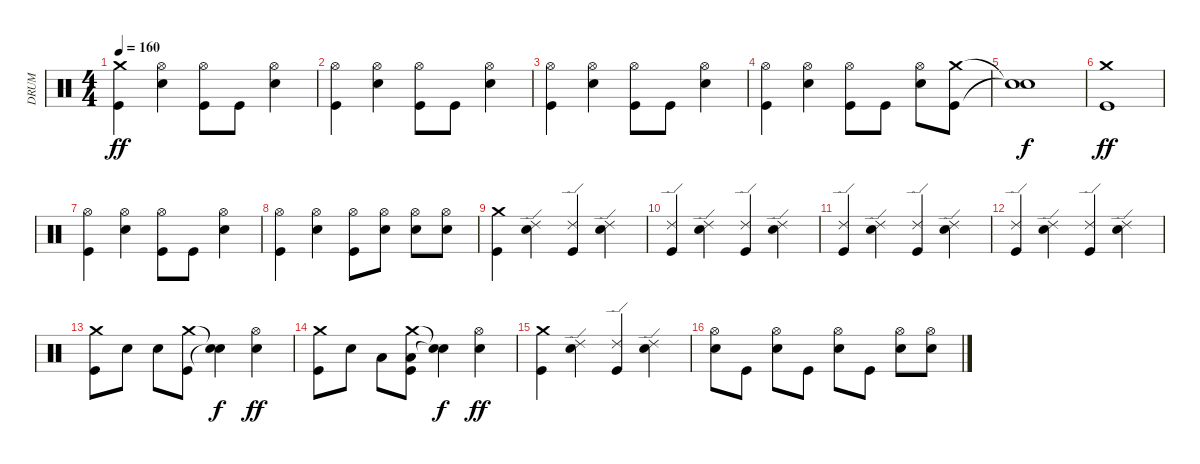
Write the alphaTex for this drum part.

\track ("DRUM" "DRUM") {instrument percussion}
\staff {score}
\articulation defaults
\ts (4 4)
\tempo 160
\clef neutral
\ks c
("Crash medium (hit)" "Kick (hit)").4{dy ff} ("Hi-Hat (open)" "Snare (hit) 2").4 ("Hi-Hat (open)" "Kick (hit)").8 "Kick (hit)".8 ("Hi-Hat (open)" "Snare (hit) 2").4 |
("Hi-Hat (open)" "Kick (hit)").4 ("Hi-Hat (open)" "Snare (hit) 2").4 ("Hi-Hat (open)" "Kick (hit)").8 "Kick (hit)".8 ("Hi-Hat (open)" "Snare (hit) 2").4 |
("Hi-Hat (open)" "Kick (hit)").4 ("Hi-Hat (open)" "Snare (hit) 2").4 ("Hi-Hat (open)" "Kick (hit)").8 "Kick (hit)".8 ("Hi-Hat (open)" "Snare (hit) 2").4 |
("Hi-Hat (open)" "Kick (hit)").4 ("Hi-Hat (open)" "Snare (hit) 2").4 ("Hi-Hat (open)" "Kick (hit)").8 "Kick (hit)".8 ("Hi-Hat (open)" "Snare (hit) 2").8 ("Crash medium (hit)" "Kick (hit)").8 |
("Snare (hit)"{t} "Snare (hit)"{t}).1{dy f} |
("Crash medium (hit)" "Kick (hit)").1{dy ff} |
("Hi-Hat (open)" "Kick (hit)").4 ("Hi-Hat (open)" "Snare (hit) 2").4 ("Hi-Hat (open)" "Kick (hit)").8 "Kick (hit)".8 ("Hi-Hat (open)" "Snare (hit) 2").4 |
("Hi-Hat (open)" "Kick (hit)").4 ("Hi-Hat (open)" "Snare (hit) 2").4 ("Hi-Hat (open)" "Kick (hit)").8 ("Hi-Hat (open)" "Snare (hit) 2").8 ("Hi-Hat (open)" "Snare (hit) 2").8 ("Hi-Hat (open)" "Snare (hit) 2").8 |
("Crash medium (hit)" "Kick (hit)").4 ("Ride (edge) 2" "Snare (hit) 2").4 ("Ride (edge) 2" "Kick (hit)").4 ("Ride (edge) 2" "Snare (hit) 2").4 |
("Ride (edge) 2" "Kick (hit)").4 ("Ride (edge) 2" "Snare (hit) 2").4 ("Ride (edge) 2" "Kick (hit)").4 ("Ride (edge) 2" "Snare (hit) 2").4 |
("Ride (edge) 2" "Kick (hit)").4 ("Ride (edge) 2" "Snare (hit) 2").4 ("Ride (edge) 2" "Kick (hit)").4 ("Ride (edge) 2" "Snare (hit) 2").4 |
("Ride (edge) 2" "Kick (hit)").4 ("Ride (edge) 2" "Snare (hit) 2").4 ("Ride (edge) 2" "Kick (hit)").4 ("Ride (edge) 2" "Snare (hit) 2").4 |
("Crash medium (hit)" "Kick (hit)").8 "Snare (hit) 2".8 "Snare (hit) 2".8 ("Crash medium (hit)" "Kick (hit)").8 ("Snare (hit)"{t} "Snare (hit)"{t}).4{dy f} ("Hi-Hat (open)" "Snare (hit) 2").4{dy ff} |
("Crash medium (hit)" "Kick (hit)").8 "Snare (hit) 2".8 "Low Tom (hit)".8 ("Crash medium (hit)" "Low Tom (hit)" "Kick (hit)").8 ("Snare (hit)"{t} "Snare (hit)"{t}).4{dy f} ("Hi-Hat (open)" "Snare (hit) 2").4{dy ff} |
("Crash medium (hit)" "Kick (hit)").4 ("Ride (edge) 2" "Snare (hit) 2").4 ("Ride (edge) 2" "Kick (hit)").4 ("Ride (edge) 2" "Snare (hit) 2").4 |
("Hi-Hat (open)" "Snare (hit) 2").8 "Kick (hit)".8 ("Hi-Hat (open)" "Snare (hit) 2").8 "Kick (hit)".8 ("Hi-Hat (open)" "Snare (hit) 2").8 "Kick (hit)".8 ("Hi-Hat (open)" "Snare (hit) 2").8 ("Hi-Hat (open)" "Snare (hit) 2").8
